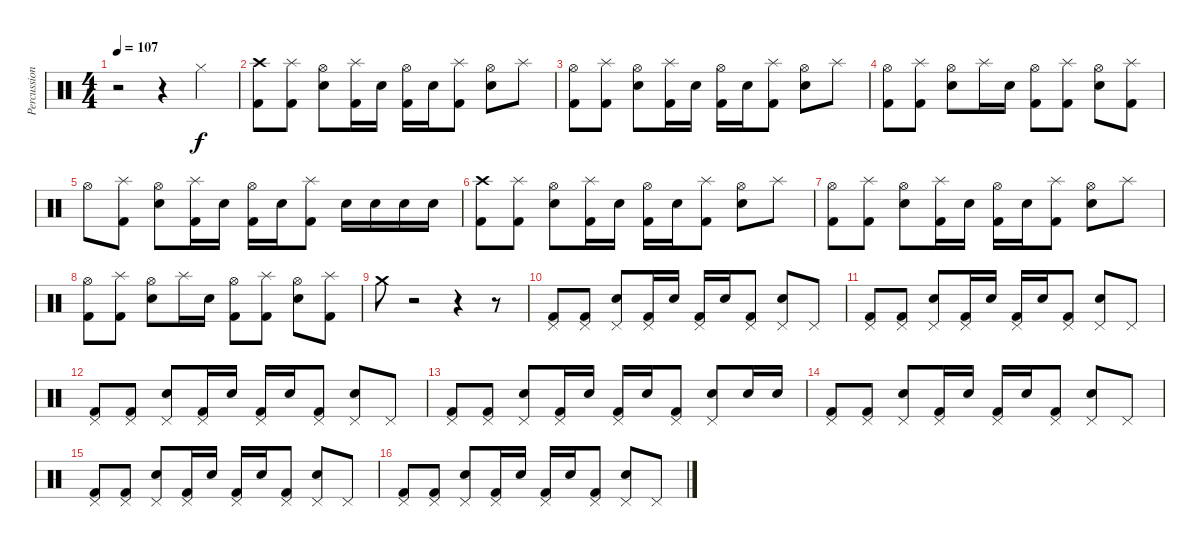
\track ("Percussions" "Percussion") {instrument percussion}
\staff {score}
\articulation defaults
\ts (4 4)
\tempo 107
\clef neutral
\ks c
r.2{dy f} r.4 "Hi-Hat (closed)".4 |
("Crash high (hit)" "Kick (hit) 2").8 ("Splash (hit)" "Kick (hit) 2").8 ("Hi-Hat (open)" "Snare (hit) 2").8 ("Splash (hit)" "Kick (hit) 2").16 "Snare (hit) 2".16 ("Hi-Hat (open)" "Kick (hit) 2").16 "Snare (hit) 2".16 ("Splash (hit)" "Kick (hit) 2").8 ("Hi-Hat (open)" "Snare (hit) 2").8 "Splash (hit)".8 |
("Hi-Hat (open)" "Kick (hit) 2").8 ("Splash (hit)" "Kick (hit) 2").8 ("Hi-Hat (open)" "Snare (hit) 2").8 ("Splash (hit)" "Kick (hit) 2").16 "Snare (hit) 2".16 ("Hi-Hat (open)" "Kick (hit) 2").16 "Snare (hit) 2".16 ("Splash (hit)" "Kick (hit) 2").8 ("Hi-Hat (open)" "Snare (hit) 2").8 "Splash (hit)".8 |
("Hi-Hat (open)" "Kick (hit) 2").8 ("Splash (hit)" "Kick (hit) 2").8 ("Hi-Hat (open)" "Snare (hit) 2").8 "Splash (hit)".16 "Snare (hit) 2".16 ("Hi-Hat (open)" "Kick (hit) 2").8 ("Splash (hit)" "Kick (hit) 2").8 ("Hi-Hat (open)" "Snare (hit) 2").8 ("Splash (hit)" "Kick (hit) 2").8 |
"Hi-Hat (open)".8 ("Splash (hit)" "Kick (hit) 2").8 ("Hi-Hat (open)" "Snare (hit) 2").8 ("Splash (hit)" "Kick (hit) 2").16 "Snare (hit) 2".16 ("Hi-Hat (open)" "Kick (hit) 2").16 "Snare (hit) 2".16 ("Splash (hit)" "Kick (hit) 2").8 "Electric Snare (hit)".16 "Electric Snare (hit)".16 "Electric Snare (hit)".16 "Electric Snare (hit)".16 |
("Crash high (hit)" "Kick (hit) 2").8 ("Splash (hit)" "Kick (hit) 2").8 ("Hi-Hat (open)" "Snare (hit) 2").8 ("Splash (hit)" "Kick (hit) 2").16 "Snare (hit) 2".16 ("Hi-Hat (open)" "Kick (hit) 2").16 "Snare (hit) 2".16 ("Splash (hit)" "Kick (hit) 2").8 ("Hi-Hat (open)" "Snare (hit) 2").8 "Splash (hit)".8 |
("Hi-Hat (open)" "Kick (hit) 2").8 ("Splash (hit)" "Kick (hit) 2").8 ("Hi-Hat (open)" "Snare (hit) 2").8 ("Splash (hit)" "Kick (hit) 2").16 "Snare (hit) 2".16 ("Hi-Hat (open)" "Kick (hit) 2").16 "Snare (hit) 2".16 ("Splash (hit)" "Kick (hit) 2").8 ("Hi-Hat (open)" "Snare (hit) 2").8 "Splash (hit)".8 |
("Hi-Hat (open)" "Kick (hit) 2").8 ("Splash (hit)" "Kick (hit) 2").8 ("Hi-Hat (open)" "Snare (hit) 2").8 "Splash (hit)".16 "Snare (hit) 2".16 ("Hi-Hat (open)" "Kick (hit) 2").8 ("Splash (hit)" "Kick (hit) 2").8 ("Hi-Hat (open)" "Snare (hit) 2").8 ("Splash (hit)" "Kick (hit) 2").8 |
"Crash medium (hit)".8 r.2 r.4 r.8 |
("Pedal Hi-Hat (hit)" "Kick (hit) 2").8{volume 10} ("Pedal Hi-Hat (hit)" "Kick (hit) 2").8 ("Pedal Hi-Hat (hit)" "Electric Snare (hit)").8 ("Pedal Hi-Hat (hit)" "Kick (hit) 2").16 "Snare (hit) 2".16 ("Pedal Hi-Hat (hit)" "Kick (hit) 2").16 "Snare (hit) 2".16 ("Pedal Hi-Hat (hit)" "Kick (hit) 2").8 ("Pedal Hi-Hat (hit)" "Snare (hit) 2").8 "Pedal Hi-Hat (hit)".8 |
("Pedal Hi-Hat (hit)" "Kick (hit) 2").8 ("Pedal Hi-Hat (hit)" "Kick (hit) 2").8 ("Pedal Hi-Hat (hit)" "Electric Snare (hit)").8 ("Pedal Hi-Hat (hit)" "Kick (hit) 2").16 "Snare (hit) 2".16 ("Pedal Hi-Hat (hit)" "Kick (hit) 2").16 "Snare (hit) 2".16 ("Pedal Hi-Hat (hit)" "Kick (hit) 2").8 ("Pedal Hi-Hat (hit)" "Snare (hit) 2").8 "Pedal Hi-Hat (hit)".8 |
("Pedal Hi-Hat (hit)" "Kick (hit) 2").8 ("Pedal Hi-Hat (hit)" "Kick (hit) 2").8 ("Pedal Hi-Hat (hit)" "Electric Snare (hit)").8 ("Pedal Hi-Hat (hit)" "Kick (hit) 2").16 "Snare (hit) 2".16 ("Pedal Hi-Hat (hit)" "Kick (hit) 2").16 "Snare (hit) 2".16 ("Pedal Hi-Hat (hit)" "Kick (hit) 2").8 ("Pedal Hi-Hat (hit)" "Snare (hit) 2").8 "Pedal Hi-Hat (hit)".8 |
("Pedal Hi-Hat (hit)" "Kick (hit) 2").8 ("Pedal Hi-Hat (hit)" "Kick (hit) 2").8 ("Pedal Hi-Hat (hit)" "Electric Snare (hit)").8 ("Pedal Hi-Hat (hit)" "Kick (hit) 2").16 "Snare (hit) 2".16 ("Pedal Hi-Hat (hit)" "Kick (hit) 2").16 "Snare (hit) 2".16 ("Pedal Hi-Hat (hit)" "Kick (hit) 2").8 ("Pedal Hi-Hat (hit)" "Snare (hit) 2").8 "Snare (hit) 2".16 "Snare (hit) 2".16 |
("Pedal Hi-Hat (hit)" "Kick (hit) 2").8{volume 10} ("Pedal Hi-Hat (hit)" "Kick (hit) 2").8 ("Pedal Hi-Hat (hit)" "Electric Snare (hit)").8 ("Pedal Hi-Hat (hit)" "Kick (hit) 2").16 "Snare (hit) 2".16 ("Pedal Hi-Hat (hit)" "Kick (hit) 2").16 "Snare (hit) 2".16 ("Pedal Hi-Hat (hit)" "Kick (hit) 2").8 ("Pedal Hi-Hat (hit)" "Snare (hit) 2").8 "Pedal Hi-Hat (hit)".8 |
("Pedal Hi-Hat (hit)" "Kick (hit) 2").8 ("Pedal Hi-Hat (hit)" "Kick (hit) 2").8 ("Pedal Hi-Hat (hit)" "Electric Snare (hit)").8 ("Pedal Hi-Hat (hit)" "Kick (hit) 2").16 "Snare (hit) 2".16 ("Pedal Hi-Hat (hit)" "Kick (hit) 2").16 "Snare (hit) 2".16 ("Pedal Hi-Hat (hit)" "Kick (hit) 2").8 ("Pedal Hi-Hat (hit)" "Snare (hit) 2").8 "Pedal Hi-Hat (hit)".8 |
("Pedal Hi-Hat (hit)" "Kick (hit) 2").8 ("Pedal Hi-Hat (hit)" "Kick (hit) 2").8 ("Pedal Hi-Hat (hit)" "Electric Snare (hit)").8 ("Pedal Hi-Hat (hit)" "Kick (hit) 2").16 "Snare (hit) 2".16 ("Pedal Hi-Hat (hit)" "Kick (hit) 2").16 "Snare (hit) 2".16 ("Pedal Hi-Hat (hit)" "Kick (hit) 2").8 ("Pedal Hi-Hat (hit)" "Snare (hit) 2").8 "Pedal Hi-Hat (hit)".8
